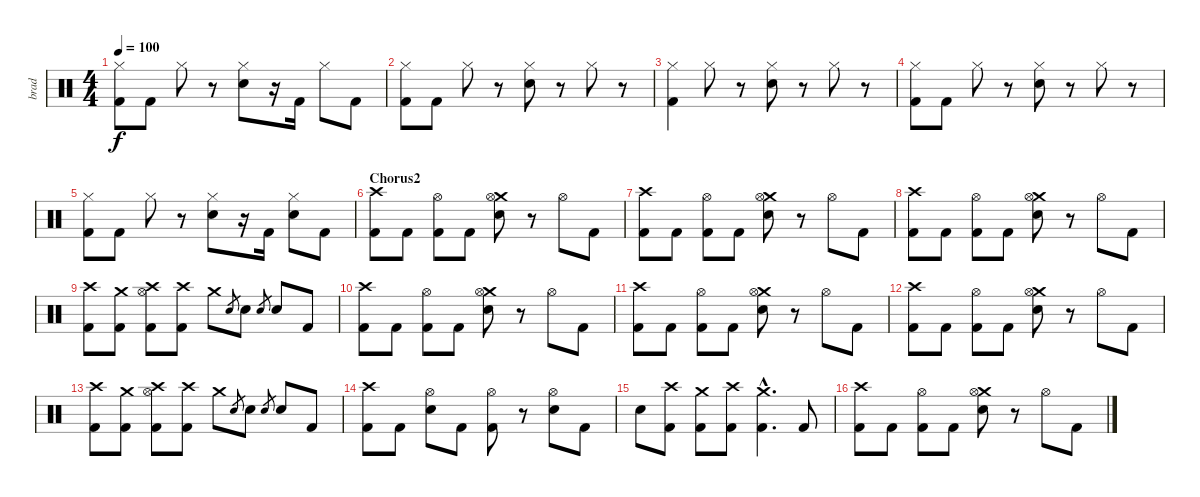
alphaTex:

\track ("brad" "brad") {instrument percussion}
\staff {score}
\articulation defaults
\ts (4 4)
\tempo 100
\clef neutral
\ks c
("Hi-Hat (closed)" "Kick (hit) 2").8{dy f} "Kick (hit) 2".8 "Hi-Hat (closed)".8 r.8 ("Hi-Hat (closed)" "Electric Snare (hit)").8 r.16 "Kick (hit) 2".16 "Hi-Hat (closed)".8 "Kick (hit) 2".8 |
("Hi-Hat (closed)" "Kick (hit) 2").8 "Kick (hit) 2".8 "Hi-Hat (closed)".8 r.8 ("Hi-Hat (closed)" "Electric Snare (hit)").8 r.8 "Hi-Hat (closed)".8 r.8 |
("Hi-Hat (closed)" "Kick (hit) 2").4 "Hi-Hat (closed)".8 r.8 ("Hi-Hat (closed)" "Electric Snare (hit)").8 r.8 "Hi-Hat (closed)".8 r.8 |
("Hi-Hat (closed)" "Kick (hit) 2").8 "Kick (hit) 2".8 "Hi-Hat (closed)".8 r.8 ("Hi-Hat (closed)" "Electric Snare (hit)").8 r.8 "Hi-Hat (closed)".8 r.8 |
("Hi-Hat (closed)" "Kick (hit) 2").8 "Kick (hit) 2".8 "Hi-Hat (closed)".8 r.8 ("Hi-Hat (closed)" "Electric Snare (hit)").8 r.16 "Kick (hit) 2".16 ("Hi-Hat (closed)" "Electric Snare (hit)").8 "Kick (hit) 2".8 |
\section ("" "Chorus2")
("Crash high (hit)" "Kick (hit) 2").8 "Kick (hit) 2".8 ("Hi-Hat (open)" "Kick (hit) 2").8 "Kick (hit) 2".8 ("Crash medium (hit)" "Hi-Hat (open)" "Electric Snare (hit)").8 r.8 "Hi-Hat (open)".8 "Kick (hit) 2".8 |
("Crash high (hit)" "Kick (hit) 2").8 "Kick (hit) 2".8 ("Hi-Hat (open)" "Kick (hit) 2").8 "Kick (hit) 2".8 ("Crash medium (hit)" "Hi-Hat (open)" "Electric Snare (hit)").8 r.8 "Hi-Hat (open)".8 "Kick (hit) 2".8 |
("Crash high (hit)" "Kick (hit) 2").8 "Kick (hit) 2".8 ("Hi-Hat (open)" "Kick (hit) 2").8 "Kick (hit) 2".8 ("Crash medium (hit)" "Hi-Hat (open)" "Electric Snare (hit)").8 r.8 "Hi-Hat (open)".8 "Kick (hit) 2".8 |
("Crash high (hit)" "Kick (hit) 2").8 ("Crash medium (hit)" "Kick (hit) 2").8 ("Crash high (hit)" "Hi-Hat (open)" "Kick (hit) 2").8 ("Crash high (hit)" "Kick (hit) 2").8 "Crash medium (hit)".8 "Electric Snare (hit)".8{gr} "Electric Snare (hit)".8 "Electric Snare (hit)".8{gr} "Electric Snare (hit)".8 "Kick (hit) 2".8 |
("Crash high (hit)" "Kick (hit) 2").8 "Kick (hit) 2".8 ("Hi-Hat (open)" "Kick (hit) 2").8 "Kick (hit) 2".8 ("Crash medium (hit)" "Hi-Hat (open)" "Electric Snare (hit)").8 r.8 "Hi-Hat (open)".8 "Kick (hit) 2".8 |
("Crash high (hit)" "Kick (hit) 2").8 "Kick (hit) 2".8 ("Hi-Hat (open)" "Kick (hit) 2").8 "Kick (hit) 2".8 ("Crash medium (hit)" "Hi-Hat (open)" "Electric Snare (hit)").8 r.8 "Hi-Hat (open)".8 "Kick (hit) 2".8 |
("Crash high (hit)" "Kick (hit) 2").8 "Kick (hit) 2".8 ("Hi-Hat (open)" "Kick (hit) 2").8 "Kick (hit) 2".8 ("Crash medium (hit)" "Hi-Hat (open)" "Electric Snare (hit)").8 r.8 "Hi-Hat (open)".8 "Kick (hit) 2".8 |
("Crash high (hit)" "Kick (hit) 2").8 ("Crash medium (hit)" "Kick (hit) 2").8 ("Crash high (hit)" "Hi-Hat (open)" "Kick (hit) 2").8 ("Crash high (hit)" "Kick (hit) 2").8 "Crash medium (hit)".8 "Electric Snare (hit)".8{gr} "Electric Snare (hit)".8 "Electric Snare (hit)".8{gr} "Electric Snare (hit)".8 "Kick (hit) 2".8 |
("Crash high (hit)" "Kick (hit) 2").8 "Kick (hit) 2".8 ("Hi-Hat (open)" "Electric Snare (hit)").8 "Kick (hit) 2".8 ("Hi-Hat (open)" "Kick (hit) 2").8 r.8 ("Hi-Hat (open)" "Electric Snare (hit)").8 "Kick (hit) 2".8 |
"Electric Snare (hit)".8 ("Crash high (hit)" "Kick (hit) 2").8 ("Crash medium (hit)" "Kick (hit) 2").8 ("Crash high (hit)" "Kick (hit) 2").8 ("Crash medium (hit)"{hac} "Kick (hit) 2"{hac}).4{d} "Kick (hit) 2".8 |
("Crash high (hit)" "Kick (hit) 2").8 "Kick (hit) 2".8 ("Hi-Hat (open)" "Kick (hit) 2").8 "Kick (hit) 2".8 ("Crash medium (hit)" "Hi-Hat (open)" "Electric Snare (hit)").8 r.8 "Hi-Hat (open)".8 "Kick (hit) 2".8
